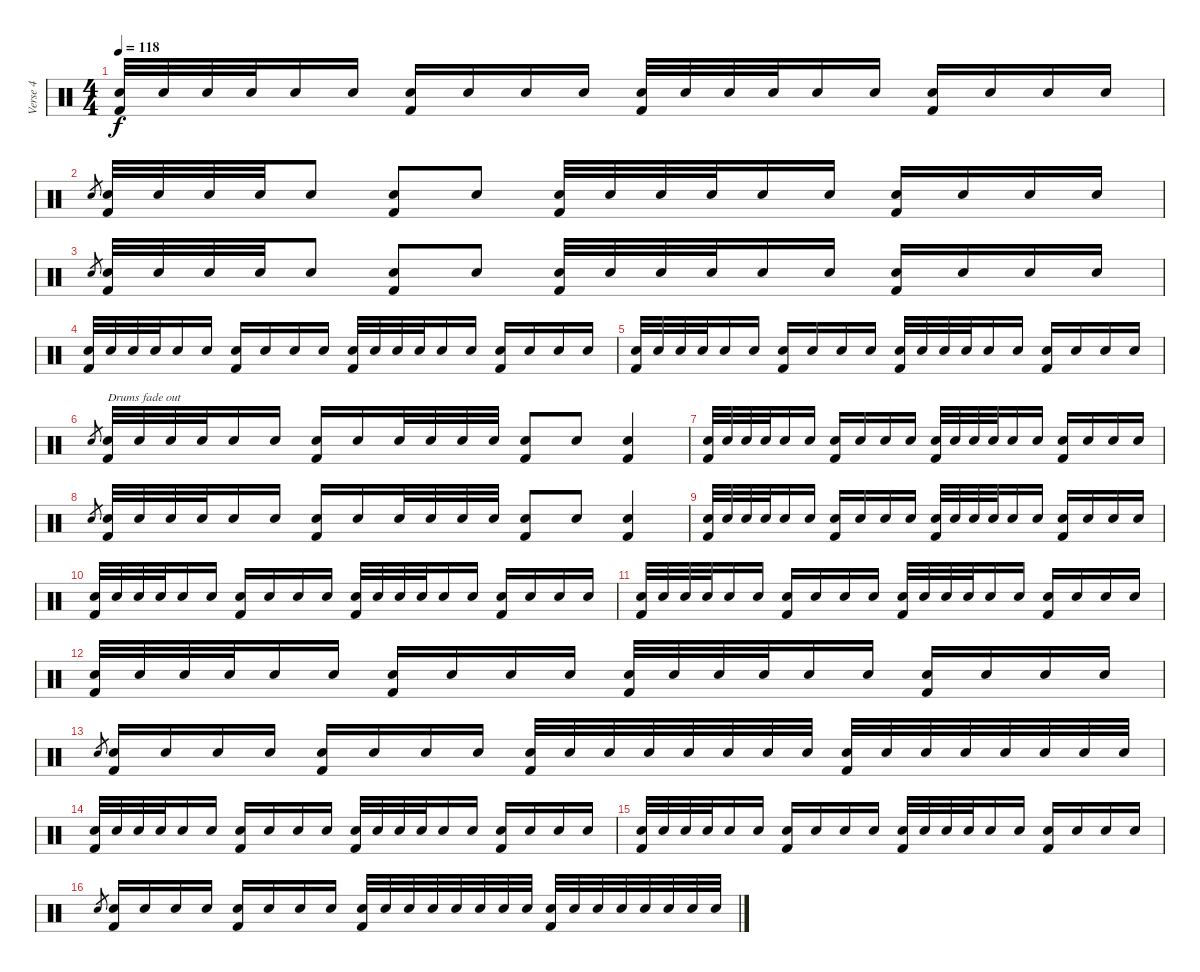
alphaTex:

\track ("Verse 4" "Verse 4") {instrument percussion}
\staff {score}
\articulation defaults
\ts (4 4)
\tempo 118
\clef neutral
\ks c
("Electric Snare (hit)" "Kick (hit) 2").32{dy f} "Electric Snare (hit)".32 "Electric Snare (hit)".32 "Electric Snare (hit)".32 "Electric Snare (hit)".16 "Electric Snare (hit)".16 ("Electric Snare (hit)" "Kick (hit) 2").16 "Electric Snare (hit)".16 "Electric Snare (hit)".16 "Electric Snare (hit)".16 ("Electric Snare (hit)" "Kick (hit) 2").32 "Electric Snare (hit)".32 "Electric Snare (hit)".32 "Electric Snare (hit)".32 "Electric Snare (hit)".16 "Electric Snare (hit)".16 ("Electric Snare (hit)" "Kick (hit) 2").16 "Electric Snare (hit)".16 "Electric Snare (hit)".16 "Electric Snare (hit)".16 |
"Electric Snare (hit)".8{gr} ("Electric Snare (hit)" "Kick (hit) 2").32 "Electric Snare (hit)".32 "Electric Snare (hit)".32 "Electric Snare (hit)".32 "Electric Snare (hit)".8 ("Electric Snare (hit)" "Kick (hit) 2").8 "Electric Snare (hit)".8 ("Electric Snare (hit)" "Kick (hit) 2").32 "Electric Snare (hit)".32 "Electric Snare (hit)".32 "Electric Snare (hit)".32 "Electric Snare (hit)".16 "Electric Snare (hit)".16 ("Electric Snare (hit)" "Kick (hit) 2").16 "Electric Snare (hit)".16 "Electric Snare (hit)".16 "Electric Snare (hit)".16 |
"Electric Snare (hit)".8{gr} ("Electric Snare (hit)" "Kick (hit) 2").32 "Electric Snare (hit)".32 "Electric Snare (hit)".32 "Electric Snare (hit)".32 "Electric Snare (hit)".8 ("Electric Snare (hit)" "Kick (hit) 2").8 "Electric Snare (hit)".8 ("Electric Snare (hit)" "Kick (hit) 2").32 "Electric Snare (hit)".32 "Electric Snare (hit)".32 "Electric Snare (hit)".32 "Electric Snare (hit)".16 "Electric Snare (hit)".16 ("Electric Snare (hit)" "Kick (hit) 2").16 "Electric Snare (hit)".16 "Electric Snare (hit)".16 "Electric Snare (hit)".16 |
("Electric Snare (hit)" "Kick (hit) 2").32 "Electric Snare (hit)".32 "Electric Snare (hit)".32 "Electric Snare (hit)".32 "Electric Snare (hit)".16 "Electric Snare (hit)".16 ("Electric Snare (hit)" "Kick (hit) 2").16 "Electric Snare (hit)".16 "Electric Snare (hit)".16 "Electric Snare (hit)".16 ("Electric Snare (hit)" "Kick (hit) 2").32 "Electric Snare (hit)".32 "Electric Snare (hit)".32 "Electric Snare (hit)".32 "Electric Snare (hit)".16 "Electric Snare (hit)".16 ("Electric Snare (hit)" "Kick (hit) 2").16 "Electric Snare (hit)".16 "Electric Snare (hit)".16 "Electric Snare (hit)".16 |
("Electric Snare (hit)" "Kick (hit) 2").32 "Electric Snare (hit)".32 "Electric Snare (hit)".32 "Electric Snare (hit)".32 "Electric Snare (hit)".16 "Electric Snare (hit)".16 ("Electric Snare (hit)" "Kick (hit) 2").16 "Electric Snare (hit)".16 "Electric Snare (hit)".16 "Electric Snare (hit)".16 ("Electric Snare (hit)" "Kick (hit) 2").32 "Electric Snare (hit)".32 "Electric Snare (hit)".32 "Electric Snare (hit)".32 "Electric Snare (hit)".16 "Electric Snare (hit)".16 ("Electric Snare (hit)" "Kick (hit) 2").16 "Electric Snare (hit)".16 "Electric Snare (hit)".16 "Electric Snare (hit)".16 |
"Electric Snare (hit)".8{gr} ("Electric Snare (hit)" "Kick (hit) 2").32{txt "Drums fade out" volume 13} "Electric Snare (hit)".32 "Electric Snare (hit)".32 "Electric Snare (hit)".32 "Electric Snare (hit)".16 "Electric Snare (hit)".16 ("Electric Snare (hit)" "Kick (hit) 2").16 "Electric Snare (hit)".16 "Electric Snare (hit)".32 "Electric Snare (hit)".32 "Electric Snare (hit)".32 "Electric Snare (hit)".32 ("Electric Snare (hit)" "Kick (hit) 2").8 "Electric Snare (hit)".8 ("Electric Snare (hit)" "Kick (hit) 2").4 |
("Electric Snare (hit)" "Kick (hit) 2").32{volume 12} "Electric Snare (hit)".32 "Electric Snare (hit)".32 "Electric Snare (hit)".32 "Electric Snare (hit)".16 "Electric Snare (hit)".16 ("Electric Snare (hit)" "Kick (hit) 2").16 "Electric Snare (hit)".16 "Electric Snare (hit)".16 "Electric Snare (hit)".16 ("Electric Snare (hit)" "Kick (hit) 2").32 "Electric Snare (hit)".32 "Electric Snare (hit)".32 "Electric Snare (hit)".32 "Electric Snare (hit)".16 "Electric Snare (hit)".16 ("Electric Snare (hit)" "Kick (hit) 2").16 "Electric Snare (hit)".16 "Electric Snare (hit)".16 "Electric Snare (hit)".16 |
"Electric Snare (hit)".8{gr} ("Electric Snare (hit)" "Kick (hit) 2").32{volume 11} "Electric Snare (hit)".32 "Electric Snare (hit)".32 "Electric Snare (hit)".32 "Electric Snare (hit)".16 "Electric Snare (hit)".16 ("Electric Snare (hit)" "Kick (hit) 2").16 "Electric Snare (hit)".16 "Electric Snare (hit)".32 "Electric Snare (hit)".32 "Electric Snare (hit)".32 "Electric Snare (hit)".32 ("Electric Snare (hit)" "Kick (hit) 2").8 "Electric Snare (hit)".8 ("Electric Snare (hit)" "Kick (hit) 2").4 |
("Electric Snare (hit)" "Kick (hit) 2").32{volume 10} "Electric Snare (hit)".32 "Electric Snare (hit)".32 "Electric Snare (hit)".32 "Electric Snare (hit)".16 "Electric Snare (hit)".16 ("Electric Snare (hit)" "Kick (hit) 2").16 "Electric Snare (hit)".16 "Electric Snare (hit)".16 "Electric Snare (hit)".16 ("Electric Snare (hit)" "Kick (hit) 2").32 "Electric Snare (hit)".32 "Electric Snare (hit)".32 "Electric Snare (hit)".32 "Electric Snare (hit)".16 "Electric Snare (hit)".16 ("Electric Snare (hit)" "Kick (hit) 2").16 "Electric Snare (hit)".16 "Electric Snare (hit)".16 "Electric Snare (hit)".16 |
("Electric Snare (hit)" "Kick (hit) 2").32{volume 9} "Electric Snare (hit)".32 "Electric Snare (hit)".32 "Electric Snare (hit)".32 "Electric Snare (hit)".16 "Electric Snare (hit)".16 ("Electric Snare (hit)" "Kick (hit) 2").16 "Electric Snare (hit)".16 "Electric Snare (hit)".16 "Electric Snare (hit)".16 ("Electric Snare (hit)" "Kick (hit) 2").32 "Electric Snare (hit)".32 "Electric Snare (hit)".32 "Electric Snare (hit)".32 "Electric Snare (hit)".16 "Electric Snare (hit)".16 ("Electric Snare (hit)" "Kick (hit) 2").16 "Electric Snare (hit)".16 "Electric Snare (hit)".16 "Electric Snare (hit)".16 |
("Electric Snare (hit)" "Kick (hit) 2").32{volume 7} "Electric Snare (hit)".32 "Electric Snare (hit)".32 "Electric Snare (hit)".32 "Electric Snare (hit)".16 "Electric Snare (hit)".16 ("Electric Snare (hit)" "Kick (hit) 2").16 "Electric Snare (hit)".16 "Electric Snare (hit)".16 "Electric Snare (hit)".16 ("Electric Snare (hit)" "Kick (hit) 2").32 "Electric Snare (hit)".32 "Electric Snare (hit)".32 "Electric Snare (hit)".32 "Electric Snare (hit)".16 "Electric Snare (hit)".16 ("Electric Snare (hit)" "Kick (hit) 2").16 "Electric Snare (hit)".16 "Electric Snare (hit)".16 "Electric Snare (hit)".16 |
("Electric Snare (hit)" "Kick (hit) 2").32{volume 6} "Electric Snare (hit)".32 "Electric Snare (hit)".32 "Electric Snare (hit)".32 "Electric Snare (hit)".16 "Electric Snare (hit)".16 ("Electric Snare (hit)" "Kick (hit) 2").16 "Electric Snare (hit)".16 "Electric Snare (hit)".16 "Electric Snare (hit)".16 ("Electric Snare (hit)" "Kick (hit) 2").32 "Electric Snare (hit)".32 "Electric Snare (hit)".32 "Electric Snare (hit)".32 "Electric Snare (hit)".16 "Electric Snare (hit)".16 ("Electric Snare (hit)" "Kick (hit) 2").16 "Electric Snare (hit)".16 "Electric Snare (hit)".16 "Electric Snare (hit)".16 |
"Electric Snare (hit)".8{gr} ("Electric Snare (hit)" "Kick (hit) 2").16{volume 5} "Electric Snare (hit)".16 "Electric Snare (hit)".16 "Electric Snare (hit)".16 ("Electric Snare (hit)" "Kick (hit) 2").16 "Electric Snare (hit)".16 "Electric Snare (hit)".16 "Electric Snare (hit)".16 ("Electric Snare (hit)" "Kick (hit) 2").32 "Electric Snare (hit)".32 "Electric Snare (hit)".32 "Electric Snare (hit)".32 "Electric Snare (hit)".32 "Electric Snare (hit)".32 "Electric Snare (hit)".32 "Electric Snare (hit)".32 ("Electric Snare (hit)" "Kick (hit) 2").32 "Electric Snare (hit)".32 "Electric Snare (hit)".32 "Electric Snare (hit)".32 "Electric Snare (hit)".32 "Electric Snare (hit)".32 "Electric Snare (hit)".32 "Electric Snare (hit)".32 |
("Electric Snare (hit)" "Kick (hit) 2").32{volume 4} "Electric Snare (hit)".32 "Electric Snare (hit)".32 "Electric Snare (hit)".32 "Electric Snare (hit)".16 "Electric Snare (hit)".16 ("Electric Snare (hit)" "Kick (hit) 2").16 "Electric Snare (hit)".16 "Electric Snare (hit)".16 "Electric Snare (hit)".16 ("Electric Snare (hit)" "Kick (hit) 2").32 "Electric Snare (hit)".32 "Electric Snare (hit)".32 "Electric Snare (hit)".32 "Electric Snare (hit)".16 "Electric Snare (hit)".16 ("Electric Snare (hit)" "Kick (hit) 2").16 "Electric Snare (hit)".16 "Electric Snare (hit)".16 "Electric Snare (hit)".16 |
("Electric Snare (hit)" "Kick (hit) 2").32{volume 3} "Electric Snare (hit)".32 "Electric Snare (hit)".32 "Electric Snare (hit)".32 "Electric Snare (hit)".16 "Electric Snare (hit)".16 ("Electric Snare (hit)" "Kick (hit) 2").16 "Electric Snare (hit)".16 "Electric Snare (hit)".16 "Electric Snare (hit)".16 ("Electric Snare (hit)" "Kick (hit) 2").32 "Electric Snare (hit)".32 "Electric Snare (hit)".32 "Electric Snare (hit)".32 "Electric Snare (hit)".16 "Electric Snare (hit)".16 ("Electric Snare (hit)" "Kick (hit) 2").16 "Electric Snare (hit)".16 "Electric Snare (hit)".16 "Electric Snare (hit)".16 |
"Electric Snare (hit)".8{gr} ("Electric Snare (hit)" "Kick (hit) 2").16{volume 2} "Electric Snare (hit)".16 "Electric Snare (hit)".16 "Electric Snare (hit)".16 ("Electric Snare (hit)" "Kick (hit) 2").16 "Electric Snare (hit)".16 "Electric Snare (hit)".16 "Electric Snare (hit)".16 ("Electric Snare (hit)" "Kick (hit) 2").32 "Electric Snare (hit)".32 "Electric Snare (hit)".32 "Electric Snare (hit)".32 "Electric Snare (hit)".32 "Electric Snare (hit)".32 "Electric Snare (hit)".32 "Electric Snare (hit)".32 ("Electric Snare (hit)" "Kick (hit) 2").32 "Electric Snare (hit)".32 "Electric Snare (hit)".32 "Electric Snare (hit)".32 "Electric Snare (hit)".32 "Electric Snare (hit)".32 "Electric Snare (hit)".32 "Electric Snare (hit)".32
